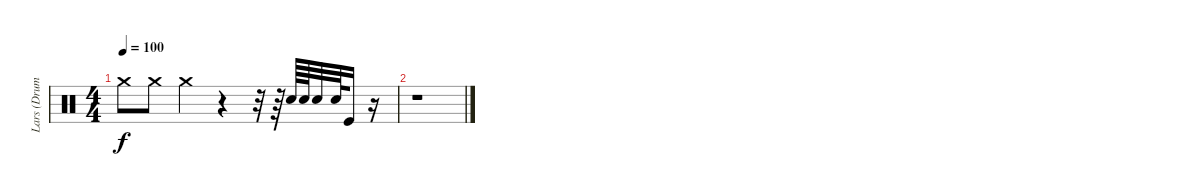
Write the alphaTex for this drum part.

\track ("Lars (Drums)" "Lars (Drum") {instrument percussion}
\staff {score}
\articulation defaults
\ts (4 4)
\tempo 100
\clef neutral
\ks c "Crash medium (hit)".8{dy f} "Crash medium (hit)".8 "Crash medium (hit)".4
r.4 r.32 r.64 "Snare (hit) 2".64 "Snare (hit) 2".64 "Snare (hit) 2".32 "Snare (hit) 2".64 "Kick (hit)".16 r.16 |
r.1
